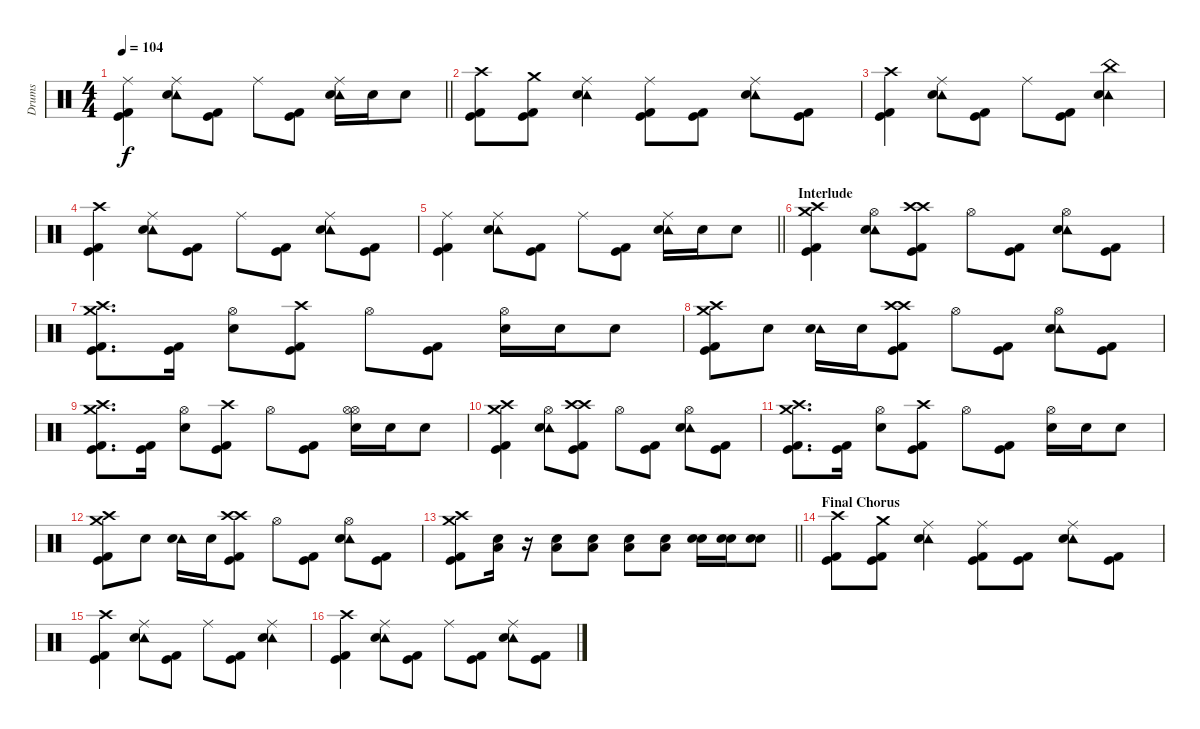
\track ("Drums" "Drums") {instrument percussion}
\staff {score}
\articulation defaults
\ts (4 4)
\tempo 104
\clef neutral
\barLineRight lightlight
\ks c
("Ride (middle)" "Kick (hit)" "Kick (hit) 2").4{dy f} ("Ride (middle)" "Tambourine (hit)" "Electric Snare (hit)").8 ("Kick (hit)" "Kick (hit) 2").8 "Ride (middle)".8 ("Kick (hit)" "Kick (hit) 2").8 ("Ride (middle)" "Tambourine (hit)" "Electric Snare (hit)").16 "Electric Snare (hit)".16 "Electric Snare (hit)".8 |
("Crash high (hit)" "Kick (hit) 2" "Kick (hit)").8 ("Crash medium (hit)" "Kick (hit) 2" "Kick (hit)").8 ("Ride (middle)" "Tambourine (hit)" "Electric Snare (hit)").4 ("Ride (middle)" "Kick (hit)" "Kick (hit) 2").8 ("Kick (hit)" "Kick (hit) 2").8 ("Ride (middle)" "Tambourine (hit)" "Electric Snare (hit)").8 ("Kick (hit)" "Kick (hit) 2").8 |
("Crash high (hit)" "Kick (hit)" "Kick (hit) 2").4 ("Ride (middle)" "Tambourine (hit)" "Electric Snare (hit)").8 ("Kick (hit)" "Kick (hit) 2").8 "Ride (middle)".8 ("Kick (hit)" "Kick (hit) 2").8 ("China (hit)" "Tambourine (hit)" "Electric Snare (hit)").4 |
("Crash high (hit)" "Kick (hit)" "Kick (hit) 2").4 ("Ride (middle)" "Tambourine (hit)" "Electric Snare (hit)").8 ("Kick (hit)" "Kick (hit) 2").8 "Ride (middle)".8 ("Kick (hit)" "Kick (hit) 2").8 ("Ride (middle)" "Tambourine (hit)" "Electric Snare (hit)").8 ("Kick (hit)" "Kick (hit) 2").8 |
\barLineRight lightlight
("Ride (middle)" "Kick (hit)" "Kick (hit) 2").4 ("Ride (middle)" "Tambourine (hit)" "Electric Snare (hit)").8 ("Kick (hit)" "Kick (hit) 2").8 "Ride (middle)".8 ("Kick (hit)" "Kick (hit) 2").8 ("Ride (middle)" "Tambourine (hit)" "Electric Snare (hit)").16 "Electric Snare (hit)".16 "Electric Snare (hit)".8 |
\section ("" "Interlude")
("Crash high (hit)" "Crash medium (hit)" "Kick (hit)" "Kick (hit) 2").4 ("Hi-Hat (open)" "Tambourine (hit)" "Electric Snare (hit)").8 ("Crash high (hit)" "Crash high (hit)" "Kick (hit)" "Kick (hit) 2").8 "Hi-Hat (open)".8 ("Kick (hit)" "Kick (hit) 2").8 ("Hi-Hat (open)" "Tambourine (hit)" "Electric Snare (hit)").8 ("Kick (hit)" "Kick (hit) 2").8 |
("Crash medium (hit)" "Crash high (hit)" "Kick (hit)" "Kick (hit) 2").8{d} ("Kick (hit)" "Kick (hit) 2").16 ("Hi-Hat (open)" "Electric Snare (hit)").8 ("Crash high (hit)" "Kick (hit)" "Kick (hit) 2").8 "Hi-Hat (open)".8 ("Kick (hit)" "Kick (hit) 2").8 ("Hi-Hat (open)" "Electric Snare (hit)").16 "Electric Snare (hit)".16 "Electric Snare (hit)".8 |
("Crash medium (hit)" "Crash high (hit)" "Kick (hit)" "Kick (hit) 2").8 "Electric Snare (hit)".8 ("Tambourine (hit)" "Electric Snare (hit)").16 "Electric Snare (hit)".16 ("Crash high (hit)" "Crash high (hit)" "Kick (hit)" "Kick (hit) 2").8 "Hi-Hat (open)".8 ("Kick (hit)" "Kick (hit) 2").8 ("Hi-Hat (open)" "Tambourine (hit)" "Electric Snare (hit)").8 ("Kick (hit)" "Kick (hit) 2").8 |
("Crash medium (hit)" "Crash high (hit)" "Kick (hit)" "Kick (hit) 2").8{d} ("Kick (hit)" "Kick (hit) 2").16 ("Hi-Hat (open)" "Electric Snare (hit)").8 ("Crash high (hit)" "Kick (hit)" "Kick (hit) 2").8 "Hi-Hat (open)".8 ("Kick (hit)" "Kick (hit) 2").8 ("Hi-Hat (open)" "Electric Snare (hit)" "Hi-Hat (open)").16 "Electric Snare (hit)".16 "Electric Snare (hit)".8 |
("Crash high (hit)" "Crash medium (hit)" "Kick (hit)" "Kick (hit) 2").4 ("Hi-Hat (open)" "Tambourine (hit)" "Electric Snare (hit)").8 ("Crash high (hit)" "Crash high (hit)" "Kick (hit)" "Kick (hit) 2").8 "Hi-Hat (open)".8 ("Kick (hit)" "Kick (hit) 2").8 ("Hi-Hat (open)" "Tambourine (hit)" "Electric Snare (hit)").8 ("Kick (hit)" "Kick (hit) 2").8 |
("Crash medium (hit)" "Crash high (hit)" "Kick (hit)" "Kick (hit) 2").8{d} ("Kick (hit)" "Kick (hit) 2").16 ("Hi-Hat (open)" "Electric Snare (hit)").8 ("Crash high (hit)" "Kick (hit)" "Kick (hit) 2").8 "Hi-Hat (open)".8 ("Kick (hit)" "Kick (hit) 2").8 ("Hi-Hat (open)" "Electric Snare (hit)").16 "Electric Snare (hit)".16 "Electric Snare (hit)".8 |
("Crash medium (hit)" "Crash high (hit)" "Kick (hit)" "Kick (hit) 2").8 "Electric Snare (hit)".8 ("Tambourine (hit)" "Electric Snare (hit)").16 "Electric Snare (hit)".16 ("Crash high (hit)" "Crash high (hit)" "Kick (hit)" "Kick (hit) 2").8 "Hi-Hat (open)".8 ("Kick (hit)" "Kick (hit) 2").8 ("Hi-Hat (open)" "Tambourine (hit)" "Electric Snare (hit)").8 ("Kick (hit)" "Kick (hit) 2").8 |
\barLineRight lightlight
("Crash medium (hit)" "Crash high (hit)" "Kick (hit)" "Kick (hit) 2").8 ("Electric Snare (hit)" "Low Tom (hit)").16 r.16 ("Electric Snare (hit)" "Low Tom (hit)").8 ("Electric Snare (hit)" "Low Tom (hit)").8 ("Electric Snare (hit)" "Low Tom (hit)").8 ("Electric Snare (hit)" "Low Tom (hit)").8 ("Electric Snare (hit)" "Electric Snare (hit)").16 ("Electric Snare (hit)" "Electric Snare (hit)").16 ("Electric Snare (hit)" "Electric Snare (hit)").8 |
\section ("" "Final Chorus")
("Crash high (hit)" "Kick (hit)" "Kick (hit) 2").8 ("Crash medium (hit)" "Kick (hit)" "Kick (hit) 2").8 ("Ride (middle)" "Tambourine (hit)" "Electric Snare (hit)").4 ("Ride (middle)" "Kick (hit)" "Kick (hit) 2").8 ("Kick (hit)" "Kick (hit) 2").8 ("Ride (middle)" "Tambourine (hit)" "Electric Snare (hit)").8 ("Kick (hit)" "Kick (hit) 2").8 |
("Crash high (hit)" "Kick (hit)" "Kick (hit) 2").4 ("Ride (middle)" "Tambourine (hit)" "Electric Snare (hit)").8 ("Kick (hit)" "Kick (hit) 2").8 "Ride (middle)".8 ("Kick (hit)" "Kick (hit) 2").8 ("Ride (middle)" "Tambourine (hit)" "Electric Snare (hit)").4 |
("Crash high (hit)" "Kick (hit)" "Kick (hit) 2").4 ("Ride (middle)" "Tambourine (hit)" "Electric Snare (hit)").8 ("Kick (hit)" "Kick (hit) 2").8 "Ride (middle)".8 ("Kick (hit)" "Kick (hit) 2").8 ("Ride (middle)" "Tambourine (hit)" "Electric Snare (hit)").8 ("Kick (hit)" "Kick (hit) 2").8
